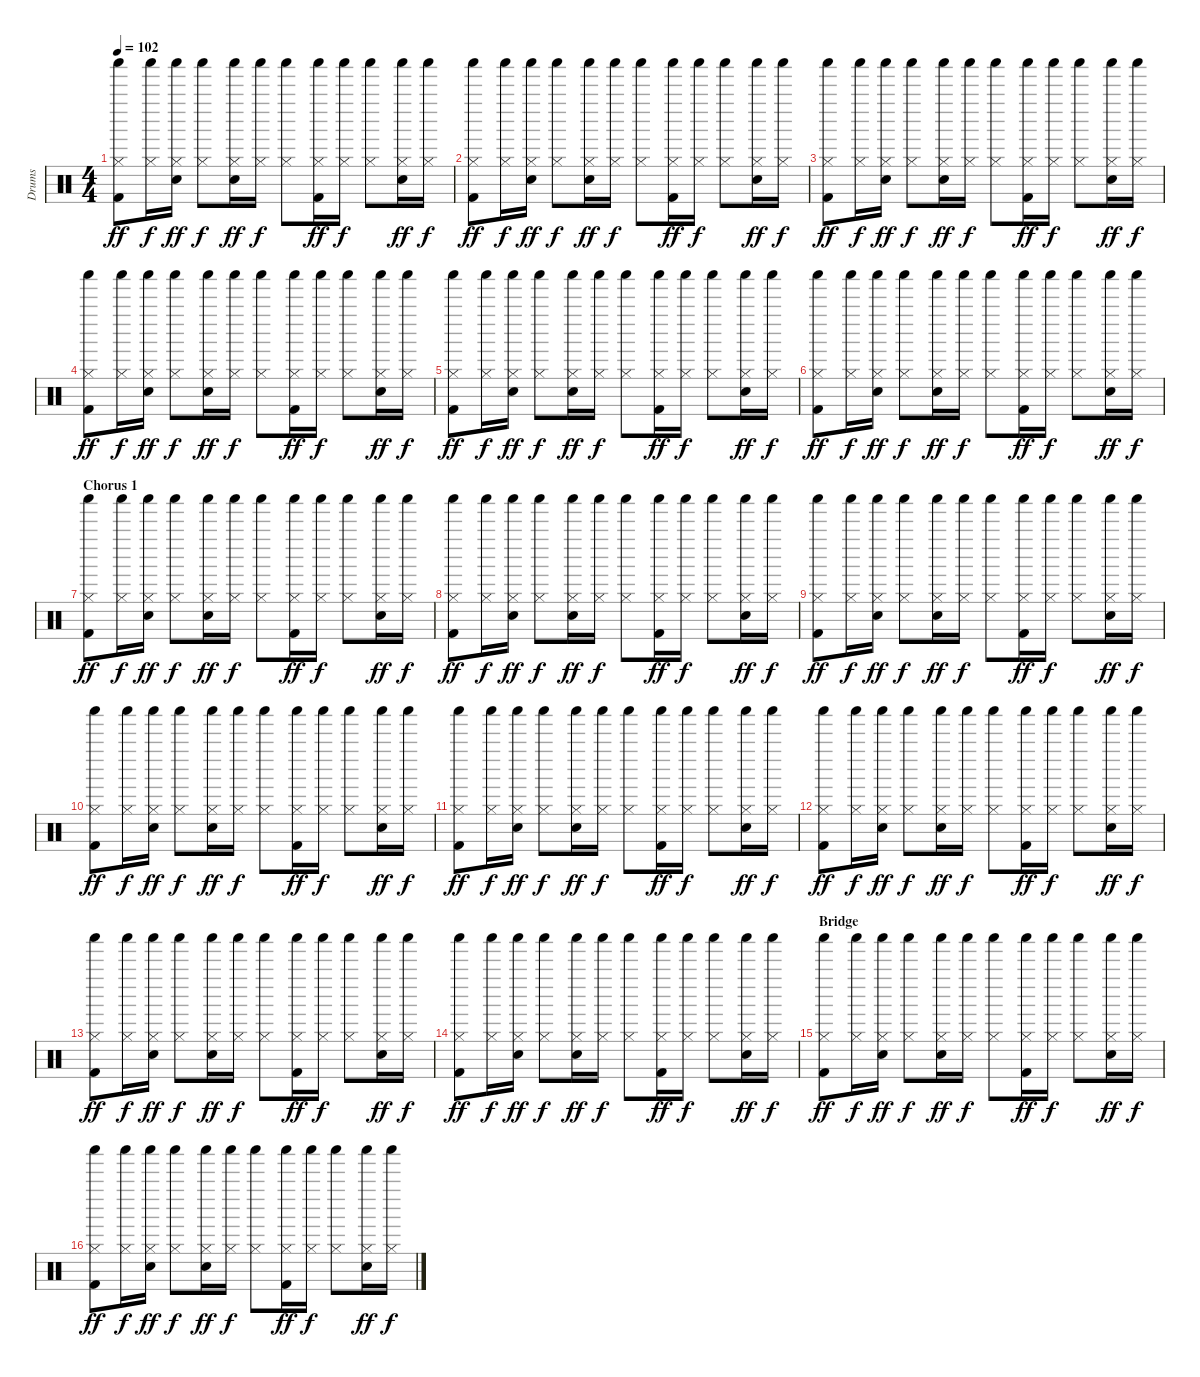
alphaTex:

\track ("Drums" "Drums") {instrument percussion}
\staff {score}
\articulation defaults
\ts (4 4)
\tempo 102
\clef neutral
\ks c
("Hi-Hat (closed)" "Shaker (hit)" "Kick (hit) 2").8{dy ff} ("Hi-Hat (closed)" "Shaker (hit)").16{dy f} ("Hi-Hat (closed)" "Shaker (hit)" "Snare (hit) 2").16{dy ff} ("Hi-Hat (closed)" "Shaker (hit)").8{dy f} ("Hi-Hat (closed)" "Shaker (hit)" "Snare (hit) 2").16{dy ff} ("Hi-Hat (closed)" "Shaker (hit)").16{dy f} ("Hi-Hat (closed)" "Shaker (hit)").8 ("Hi-Hat (closed)" "Shaker (hit)" "Kick (hit) 2").16{dy ff} ("Hi-Hat (closed)" "Shaker (hit)").16{dy f} ("Hi-Hat (closed)" "Shaker (hit)").8 ("Hi-Hat (closed)" "Shaker (hit)" "Snare (hit) 2").16{dy ff} ("Hi-Hat (closed)" "Shaker (hit)").16{dy f} |
("Hi-Hat (closed)" "Shaker (hit)" "Kick (hit) 2").8{dy ff} ("Hi-Hat (closed)" "Shaker (hit)").16{dy f} ("Hi-Hat (closed)" "Shaker (hit)" "Snare (hit) 2").16{dy ff} ("Hi-Hat (closed)" "Shaker (hit)").8{dy f} ("Hi-Hat (closed)" "Shaker (hit)" "Snare (hit) 2").16{dy ff} ("Hi-Hat (closed)" "Shaker (hit)").16{dy f} ("Hi-Hat (closed)" "Shaker (hit)").8 ("Hi-Hat (closed)" "Shaker (hit)" "Kick (hit) 2").16{dy ff} ("Hi-Hat (closed)" "Shaker (hit)").16{dy f} ("Hi-Hat (closed)" "Shaker (hit)").8 ("Hi-Hat (closed)" "Shaker (hit)" "Snare (hit) 2").16{dy ff} ("Hi-Hat (closed)" "Shaker (hit)").16{dy f} |
("Hi-Hat (closed)" "Shaker (hit)" "Kick (hit) 2").8{dy ff} ("Hi-Hat (closed)" "Shaker (hit)").16{dy f} ("Hi-Hat (closed)" "Shaker (hit)" "Snare (hit) 2").16{dy ff} ("Hi-Hat (closed)" "Shaker (hit)").8{dy f} ("Hi-Hat (closed)" "Shaker (hit)" "Snare (hit) 2").16{dy ff} ("Hi-Hat (closed)" "Shaker (hit)").16{dy f} ("Hi-Hat (closed)" "Shaker (hit)").8 ("Hi-Hat (closed)" "Shaker (hit)" "Kick (hit) 2").16{dy ff} ("Hi-Hat (closed)" "Shaker (hit)").16{dy f} ("Hi-Hat (closed)" "Shaker (hit)").8 ("Hi-Hat (closed)" "Shaker (hit)" "Snare (hit) 2").16{dy ff} ("Hi-Hat (closed)" "Shaker (hit)").16{dy f} |
("Hi-Hat (closed)" "Shaker (hit)" "Kick (hit) 2").8{dy ff} ("Hi-Hat (closed)" "Shaker (hit)").16{dy f} ("Hi-Hat (closed)" "Shaker (hit)" "Snare (hit) 2").16{dy ff} ("Hi-Hat (closed)" "Shaker (hit)").8{dy f} ("Hi-Hat (closed)" "Shaker (hit)" "Snare (hit) 2").16{dy ff} ("Hi-Hat (closed)" "Shaker (hit)").16{dy f} ("Hi-Hat (closed)" "Shaker (hit)").8 ("Hi-Hat (closed)" "Shaker (hit)" "Kick (hit) 2").16{dy ff} ("Hi-Hat (closed)" "Shaker (hit)").16{dy f} ("Hi-Hat (closed)" "Shaker (hit)").8 ("Hi-Hat (closed)" "Shaker (hit)" "Snare (hit) 2").16{dy ff} ("Hi-Hat (closed)" "Shaker (hit)").16{dy f} |
("Hi-Hat (closed)" "Shaker (hit)" "Kick (hit) 2").8{dy ff} ("Hi-Hat (closed)" "Shaker (hit)").16{dy f} ("Hi-Hat (closed)" "Shaker (hit)" "Snare (hit) 2").16{dy ff} ("Hi-Hat (closed)" "Shaker (hit)").8{dy f} ("Hi-Hat (closed)" "Shaker (hit)" "Snare (hit) 2").16{dy ff} ("Hi-Hat (closed)" "Shaker (hit)").16{dy f} ("Hi-Hat (closed)" "Shaker (hit)").8 ("Hi-Hat (closed)" "Shaker (hit)" "Kick (hit) 2").16{dy ff} ("Hi-Hat (closed)" "Shaker (hit)").16{dy f} ("Hi-Hat (closed)" "Shaker (hit)").8 ("Hi-Hat (closed)" "Shaker (hit)" "Snare (hit) 2").16{dy ff} ("Hi-Hat (closed)" "Shaker (hit)").16{dy f} |
("Hi-Hat (closed)" "Shaker (hit)" "Kick (hit) 2").8{dy ff} ("Hi-Hat (closed)" "Shaker (hit)").16{dy f} ("Hi-Hat (closed)" "Shaker (hit)" "Snare (hit) 2").16{dy ff} ("Hi-Hat (closed)" "Shaker (hit)").8{dy f} ("Hi-Hat (closed)" "Shaker (hit)" "Snare (hit) 2").16{dy ff} ("Hi-Hat (closed)" "Shaker (hit)").16{dy f} ("Hi-Hat (closed)" "Shaker (hit)").8 ("Hi-Hat (closed)" "Shaker (hit)" "Kick (hit) 2").16{dy ff} ("Hi-Hat (closed)" "Shaker (hit)").16{dy f} ("Hi-Hat (closed)" "Shaker (hit)").8 ("Hi-Hat (closed)" "Shaker (hit)" "Snare (hit) 2").16{dy ff} ("Hi-Hat (closed)" "Shaker (hit)").16{dy f} |
\section ("" "Chorus 1")
("Hi-Hat (closed)" "Shaker (hit)" "Kick (hit) 2").8{dy ff} ("Hi-Hat (closed)" "Shaker (hit)").16{dy f} ("Hi-Hat (closed)" "Shaker (hit)" "Snare (hit) 2").16{dy ff} ("Hi-Hat (closed)" "Shaker (hit)").8{dy f} ("Hi-Hat (closed)" "Shaker (hit)" "Snare (hit) 2").16{dy ff} ("Hi-Hat (closed)" "Shaker (hit)").16{dy f} ("Hi-Hat (closed)" "Shaker (hit)").8 ("Hi-Hat (closed)" "Shaker (hit)" "Kick (hit) 2").16{dy ff} ("Hi-Hat (closed)" "Shaker (hit)").16{dy f} ("Hi-Hat (closed)" "Shaker (hit)").8 ("Hi-Hat (closed)" "Shaker (hit)" "Snare (hit) 2").16{dy ff} ("Hi-Hat (closed)" "Shaker (hit)").16{dy f} |
("Hi-Hat (closed)" "Shaker (hit)" "Kick (hit) 2").8{dy ff} ("Hi-Hat (closed)" "Shaker (hit)").16{dy f} ("Hi-Hat (closed)" "Shaker (hit)" "Snare (hit) 2").16{dy ff} ("Hi-Hat (closed)" "Shaker (hit)").8{dy f} ("Hi-Hat (closed)" "Shaker (hit)" "Snare (hit) 2").16{dy ff} ("Hi-Hat (closed)" "Shaker (hit)").16{dy f} ("Hi-Hat (closed)" "Shaker (hit)").8 ("Hi-Hat (closed)" "Shaker (hit)" "Kick (hit) 2").16{dy ff} ("Hi-Hat (closed)" "Shaker (hit)").16{dy f} ("Hi-Hat (closed)" "Shaker (hit)").8 ("Hi-Hat (closed)" "Shaker (hit)" "Snare (hit) 2").16{dy ff} ("Hi-Hat (closed)" "Shaker (hit)").16{dy f} |
("Hi-Hat (closed)" "Shaker (hit)" "Kick (hit) 2").8{dy ff} ("Hi-Hat (closed)" "Shaker (hit)").16{dy f} ("Hi-Hat (closed)" "Shaker (hit)" "Snare (hit) 2").16{dy ff} ("Hi-Hat (closed)" "Shaker (hit)").8{dy f} ("Hi-Hat (closed)" "Shaker (hit)" "Snare (hit) 2").16{dy ff} ("Hi-Hat (closed)" "Shaker (hit)").16{dy f} ("Hi-Hat (closed)" "Shaker (hit)").8 ("Hi-Hat (closed)" "Shaker (hit)" "Kick (hit) 2").16{dy ff} ("Hi-Hat (closed)" "Shaker (hit)").16{dy f} ("Hi-Hat (closed)" "Shaker (hit)").8 ("Hi-Hat (closed)" "Shaker (hit)" "Snare (hit) 2").16{dy ff} ("Hi-Hat (closed)" "Shaker (hit)").16{dy f} |
("Hi-Hat (closed)" "Shaker (hit)" "Kick (hit) 2").8{dy ff} ("Hi-Hat (closed)" "Shaker (hit)").16{dy f} ("Hi-Hat (closed)" "Shaker (hit)" "Snare (hit) 2").16{dy ff} ("Hi-Hat (closed)" "Shaker (hit)").8{dy f} ("Hi-Hat (closed)" "Shaker (hit)" "Snare (hit) 2").16{dy ff} ("Hi-Hat (closed)" "Shaker (hit)").16{dy f} ("Hi-Hat (closed)" "Shaker (hit)").8 ("Hi-Hat (closed)" "Shaker (hit)" "Kick (hit) 2").16{dy ff} ("Hi-Hat (closed)" "Shaker (hit)").16{dy f} ("Hi-Hat (closed)" "Shaker (hit)").8 ("Hi-Hat (closed)" "Shaker (hit)" "Snare (hit) 2").16{dy ff} ("Hi-Hat (closed)" "Shaker (hit)").16{dy f} |
("Hi-Hat (closed)" "Shaker (hit)" "Kick (hit) 2").8{dy ff} ("Hi-Hat (closed)" "Shaker (hit)").16{dy f} ("Hi-Hat (closed)" "Shaker (hit)" "Snare (hit) 2").16{dy ff} ("Hi-Hat (closed)" "Shaker (hit)").8{dy f} ("Hi-Hat (closed)" "Shaker (hit)" "Snare (hit) 2").16{dy ff} ("Hi-Hat (closed)" "Shaker (hit)").16{dy f} ("Hi-Hat (closed)" "Shaker (hit)").8 ("Hi-Hat (closed)" "Shaker (hit)" "Kick (hit) 2").16{dy ff} ("Hi-Hat (closed)" "Shaker (hit)").16{dy f} ("Hi-Hat (closed)" "Shaker (hit)").8 ("Hi-Hat (closed)" "Shaker (hit)" "Snare (hit) 2").16{dy ff} ("Hi-Hat (closed)" "Shaker (hit)").16{dy f} |
("Hi-Hat (closed)" "Shaker (hit)" "Kick (hit) 2").8{dy ff} ("Hi-Hat (closed)" "Shaker (hit)").16{dy f} ("Hi-Hat (closed)" "Shaker (hit)" "Snare (hit) 2").16{dy ff} ("Hi-Hat (closed)" "Shaker (hit)").8{dy f} ("Hi-Hat (closed)" "Shaker (hit)" "Snare (hit) 2").16{dy ff} ("Hi-Hat (closed)" "Shaker (hit)").16{dy f} ("Hi-Hat (closed)" "Shaker (hit)").8 ("Hi-Hat (closed)" "Shaker (hit)" "Kick (hit) 2").16{dy ff} ("Hi-Hat (closed)" "Shaker (hit)").16{dy f} ("Hi-Hat (closed)" "Shaker (hit)").8 ("Hi-Hat (closed)" "Shaker (hit)" "Snare (hit) 2").16{dy ff} ("Hi-Hat (closed)" "Shaker (hit)").16{dy f} |
("Hi-Hat (closed)" "Shaker (hit)" "Kick (hit) 2").8{dy ff} ("Hi-Hat (closed)" "Shaker (hit)").16{dy f} ("Hi-Hat (closed)" "Shaker (hit)" "Snare (hit) 2").16{dy ff} ("Hi-Hat (closed)" "Shaker (hit)").8{dy f} ("Hi-Hat (closed)" "Shaker (hit)" "Snare (hit) 2").16{dy ff} ("Hi-Hat (closed)" "Shaker (hit)").16{dy f} ("Hi-Hat (closed)" "Shaker (hit)").8 ("Hi-Hat (closed)" "Shaker (hit)" "Kick (hit) 2").16{dy ff} ("Hi-Hat (closed)" "Shaker (hit)").16{dy f} ("Hi-Hat (closed)" "Shaker (hit)").8 ("Hi-Hat (closed)" "Shaker (hit)" "Snare (hit) 2").16{dy ff} ("Hi-Hat (closed)" "Shaker (hit)").16{dy f} |
("Hi-Hat (closed)" "Shaker (hit)" "Kick (hit) 2").8{dy ff} ("Hi-Hat (closed)" "Shaker (hit)").16{dy f} ("Hi-Hat (closed)" "Shaker (hit)" "Snare (hit) 2").16{dy ff} ("Hi-Hat (closed)" "Shaker (hit)").8{dy f} ("Hi-Hat (closed)" "Shaker (hit)" "Snare (hit) 2").16{dy ff} ("Hi-Hat (closed)" "Shaker (hit)").16{dy f} ("Hi-Hat (closed)" "Shaker (hit)").8 ("Hi-Hat (closed)" "Shaker (hit)" "Kick (hit) 2").16{dy ff} ("Hi-Hat (closed)" "Shaker (hit)").16{dy f} ("Hi-Hat (closed)" "Shaker (hit)").8 ("Hi-Hat (closed)" "Shaker (hit)" "Snare (hit) 2").16{dy ff} ("Hi-Hat (closed)" "Shaker (hit)").16{dy f} |
\section ("" "Bridge")
("Hi-Hat (closed)" "Shaker (hit)" "Kick (hit) 2").8{dy ff} ("Hi-Hat (closed)" "Shaker (hit)").16{dy f} ("Hi-Hat (closed)" "Shaker (hit)" "Snare (hit) 2").16{dy ff} ("Hi-Hat (closed)" "Shaker (hit)").8{dy f} ("Hi-Hat (closed)" "Shaker (hit)" "Snare (hit) 2").16{dy ff} ("Hi-Hat (closed)" "Shaker (hit)").16{dy f} ("Hi-Hat (closed)" "Shaker (hit)").8 ("Hi-Hat (closed)" "Shaker (hit)" "Kick (hit) 2").16{dy ff} ("Hi-Hat (closed)" "Shaker (hit)").16{dy f} ("Hi-Hat (closed)" "Shaker (hit)").8 ("Hi-Hat (closed)" "Shaker (hit)" "Snare (hit) 2").16{dy ff} ("Hi-Hat (closed)" "Shaker (hit)").16{dy f} |
("Hi-Hat (closed)" "Shaker (hit)" "Kick (hit) 2").8{dy ff} ("Hi-Hat (closed)" "Shaker (hit)").16{dy f} ("Hi-Hat (closed)" "Shaker (hit)" "Snare (hit) 2").16{dy ff} ("Hi-Hat (closed)" "Shaker (hit)").8{dy f} ("Hi-Hat (closed)" "Shaker (hit)" "Snare (hit) 2").16{dy ff} ("Hi-Hat (closed)" "Shaker (hit)").16{dy f} ("Hi-Hat (closed)" "Shaker (hit)").8 ("Hi-Hat (closed)" "Shaker (hit)" "Kick (hit) 2").16{dy ff} ("Hi-Hat (closed)" "Shaker (hit)").16{dy f} ("Hi-Hat (closed)" "Shaker (hit)").8 ("Hi-Hat (closed)" "Shaker (hit)" "Snare (hit) 2").16{dy ff} ("Hi-Hat (closed)" "Shaker (hit)").16{dy f}
